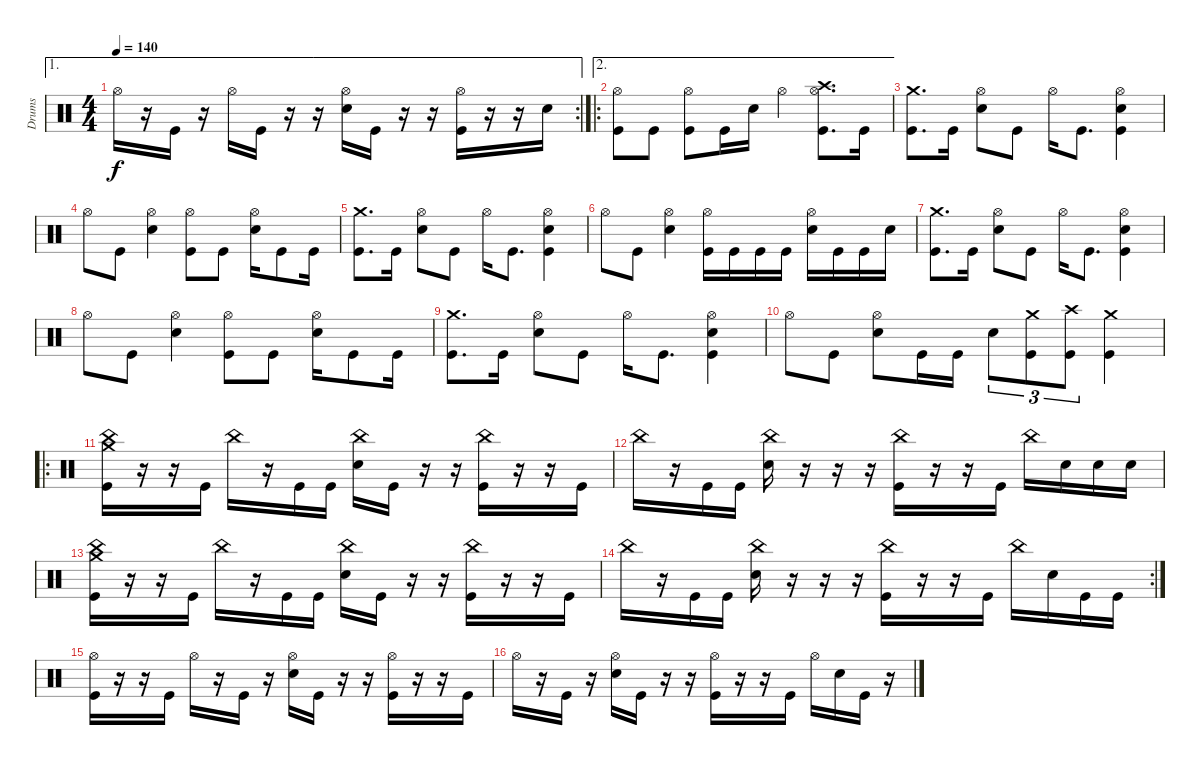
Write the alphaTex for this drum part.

\track ("Drums" "Drums") {instrument percussion}
\staff {score}
\articulation defaults
\ae 1
\rc 2
\ts (4 4)
\tempo 140
\clef neutral
\ks c "Hi-Hat (open)".16{dy f}
r.16 "Kick (hit)".16 r.16 "Hi-Hat (open)".16 "Kick (hit)".16 r.16 r.16 ("Hi-Hat (open)" "Snare (hit) 2").16 "Kick (hit)".16 r.16 r.16 ("Hi-Hat (open)" "Kick (hit)").16 r.16 r.16 "Snare (hit) 2".16 |
\ae 2
\ro
("Hi-Hat (open)" "Kick (hit)").8 "Kick (hit)".8 ("Hi-Hat (open)" "Kick (hit)").8 "Kick (hit)".16 "Snare (hit) 2".16 "Hi-Hat (open)".4 ("Crash high (hit)" "Hi-Hat (open)" "Kick (hit)").8{d} "Kick (hit)".16 |
("Crash medium (hit)" "Kick (hit)").8{d} "Kick (hit)".16 ("Hi-Hat (open)" "Snare (hit) 2").8 "Kick (hit)".8 "Hi-Hat (open)".16 "Kick (hit)".8{d} ("Hi-Hat (open)" "Snare (hit) 2" "Kick (hit)").4 |
"Hi-Hat (open)".8 "Kick (hit)".8 ("Hi-Hat (open)" "Snare (hit) 2").4 ("Hi-Hat (open)" "Kick (hit)").8 "Kick (hit)".8 ("Hi-Hat (open)" "Snare (hit) 2").16 "Kick (hit)".8 "Kick (hit)".16 |
("Crash medium (hit)" "Kick (hit)").8{d} "Kick (hit)".16 ("Hi-Hat (open)" "Snare (hit) 2").8 "Kick (hit)".8 "Hi-Hat (open)".16 "Kick (hit)".8{d} ("Hi-Hat (open)" "Snare (hit) 2" "Kick (hit)").4 |
"Hi-Hat (open)".8 "Kick (hit)".8 ("Hi-Hat (open)" "Snare (hit) 2").4 ("Hi-Hat (open)" "Kick (hit)").16 "Kick (hit)".16 "Kick (hit)".16 "Kick (hit)".16 ("Hi-Hat (open)" "Snare (hit) 2").16 "Kick (hit)".16 "Kick (hit)".16 "Snare (hit) 2".16 |
("Crash medium (hit)" "Kick (hit)").8{d} "Kick (hit)".16 ("Hi-Hat (open)" "Snare (hit) 2").8 "Kick (hit)".8 "Hi-Hat (open)".16 "Kick (hit)".8{d} ("Hi-Hat (open)" "Snare (hit) 2" "Kick (hit)").4 |
"Hi-Hat (open)".8 "Kick (hit)".8 ("Hi-Hat (open)" "Snare (hit) 2").4 ("Hi-Hat (open)" "Kick (hit)").8 "Kick (hit)".8 ("Hi-Hat (open)" "Snare (hit) 2").16 "Kick (hit)".8 "Kick (hit)".16 |
("Crash medium (hit)" "Kick (hit)").8{d} "Kick (hit)".16 ("Hi-Hat (open)" "Snare (hit) 2").8 "Kick (hit)".8 "Hi-Hat (open)".16 "Kick (hit)".8{d} ("Hi-Hat (open)" "Snare (hit) 2" "Kick (hit)").4 |
"Hi-Hat (open)".8 "Kick (hit)".8 ("Hi-Hat (open)" "Snare (hit) 2").8 "Kick (hit)".16 "Kick (hit)".16 "Snare (hit) 2".8{tu (3 2)} ("Crash medium (hit)" "Kick (hit)").8{tu (3 2)} ("Crash high (hit)" "Kick (hit)").8{tu (3 2)} ("Crash medium (hit)" "Kick (hit)").4 |
\ro
("Crash medium (hit)" "China (hit)" "Kick (hit)").16 r.16 r.16 "Kick (hit)".16 "China (hit)".16 r.16 "Kick (hit)".16 "Kick (hit)".16 ("China (hit)" "Snare (hit) 2").16 "Kick (hit)".16 r.16 r.16 ("China (hit)" "Kick (hit)").16 r.16 r.16 "Kick (hit)".16 |
"China (hit)".16 r.16 "Kick (hit)".16 "Kick (hit)".16 ("China (hit)" "Snare (hit) 2").16 r.16 r.16 r.16 ("China (hit)" "Kick (hit)").16 r.16 r.16 "Kick (hit)".16 "China (hit)".16 "Snare (hit) 2".16 "Snare (hit) 2".16 "Snare (hit) 2".16 |
("Crash medium (hit)" "China (hit)" "Kick (hit)").16 r.16 r.16 "Kick (hit)".16 "China (hit)".16 r.16 "Kick (hit)".16 "Kick (hit)".16 ("China (hit)" "Snare (hit) 2").16 "Kick (hit)".16 r.16 r.16 ("China (hit)" "Kick (hit)").16 r.16 r.16 "Kick (hit)".16 |
\rc 2 "China (hit)".16
r.16 "Kick (hit)".16 "Kick (hit)".16 ("China (hit)" "Snare (hit) 2").16 r.16 r.16 r.16 ("China (hit)" "Kick (hit)").16 r.16 r.16 "Kick (hit)".16 "China (hit)".16 "Snare (hit) 2".16 "Kick (hit)".16 "Kick (hit)".16 |
("Hi-Hat (open)" "Kick (hit)").16 r.16 r.16 "Kick (hit)".16 "Hi-Hat (open)".16 r.16 "Kick (hit)".16 r.16 ("Hi-Hat (open)" "Snare (hit) 2").16 "Kick (hit)".16 r.16 r.16 ("Hi-Hat (open)" "Kick (hit)").16 r.16 r.16 "Kick (hit)".16 |
"Hi-Hat (open)".16 r.16 "Kick (hit)".16 r.16 ("Hi-Hat (open)" "Snare (hit) 2").16 "Kick (hit)".16 r.16 r.16 ("Hi-Hat (open)" "Kick (hit)").16 r.16 r.16 "Kick (hit)".16 "Hi-Hat (open)".16 "Snare (hit) 2".16 "Kick (hit)".16 r.16
